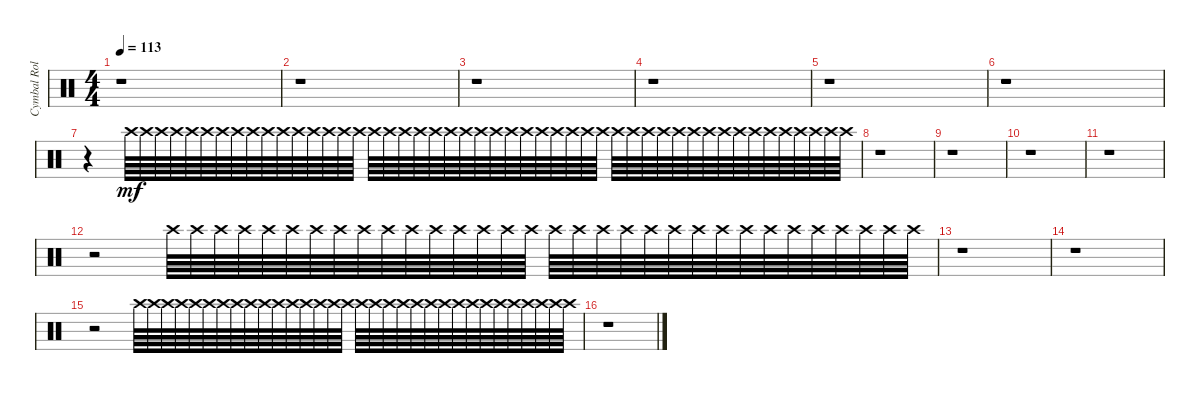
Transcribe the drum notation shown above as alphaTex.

\track ("Cymbal Rolls" "Cymbal Rol") {instrument percussion}
\staff {score}
\articulation defaults
\ts (4 4)
\tempo 113
\clef neutral
\ks c
r.1{dy mf} |
r.1 |
r.1 |
r.1 |
r.1 |
r.1 |
r.4 "Crash high (hit)".64 "Crash high (hit)".64 "Crash high (hit)".64 "Crash high (hit)".64 "Crash high (hit)".64 "Crash high (hit)".64 "Crash high (hit)".64 "Crash high (hit)".64 "Crash high (hit)".64 "Crash high (hit)".64 "Crash high (hit)".64 "Crash high (hit)".64 "Crash high (hit)".64 "Crash high (hit)".64 "Crash high (hit)".64 "Crash high (hit)".64 "Crash high (hit)".64 "Crash high (hit)".64 "Crash high (hit)".64 "Crash high (hit)".64 "Crash high (hit)".64 "Crash high (hit)".64 "Crash high (hit)".64 "Crash high (hit)".64 "Crash high (hit)".64 "Crash high (hit)".64 "Crash high (hit)".64 "Crash high (hit)".64 "Crash high (hit)".64 "Crash high (hit)".64 "Crash high (hit)".64 "Crash high (hit)".64 "Crash high (hit)".64 "Crash high (hit)".64 "Crash high (hit)".64 "Crash high (hit)".64 "Crash high (hit)".64 "Crash high (hit)".64 "Crash high (hit)".64 "Crash high (hit)".64 "Crash high (hit)".64 "Crash high (hit)".64 "Crash high (hit)".64 "Crash high (hit)".64 "Crash high (hit)".64 "Crash high (hit)".64 "Crash high (hit)".64 "Crash high (hit)".64 |
r.1 |
r.1 |
r.1 |
r.1 |
r.2 "Crash high (hit)".64 "Crash high (hit)".64 "Crash high (hit)".64 "Crash high (hit)".64 "Crash high (hit)".64 "Crash high (hit)".64 "Crash high (hit)".64 "Crash high (hit)".64 "Crash high (hit)".64 "Crash high (hit)".64 "Crash high (hit)".64 "Crash high (hit)".64 "Crash high (hit)".64 "Crash high (hit)".64 "Crash high (hit)".64 "Crash high (hit)".64 "Crash high (hit)".64 "Crash high (hit)".64 "Crash high (hit)".64 "Crash high (hit)".64 "Crash high (hit)".64 "Crash high (hit)".64 "Crash high (hit)".64 "Crash high (hit)".64 "Crash high (hit)".64 "Crash high (hit)".64 "Crash high (hit)".64 "Crash high (hit)".64 "Crash high (hit)".64 "Crash high (hit)".64 "Crash high (hit)".64 "Crash high (hit)".64 |
r.1 |
r.1 |
r.2 "Crash high (hit)".64 "Crash high (hit)".64 "Crash high (hit)".64 "Crash high (hit)".64 "Crash high (hit)".64 "Crash high (hit)".64 "Crash high (hit)".64 "Crash high (hit)".64 "Crash high (hit)".64 "Crash high (hit)".64 "Crash high (hit)".64 "Crash high (hit)".64 "Crash high (hit)".64 "Crash high (hit)".64 "Crash high (hit)".64 "Crash high (hit)".64 "Crash high (hit)".64 "Crash high (hit)".64 "Crash high (hit)".64 "Crash high (hit)".64 "Crash high (hit)".64 "Crash high (hit)".64 "Crash high (hit)".64 "Crash high (hit)".64 "Crash high (hit)".64 "Crash high (hit)".64 "Crash high (hit)".64 "Crash high (hit)".64 "Crash high (hit)".64 "Crash high (hit)".64 "Crash high (hit)".64 "Crash high (hit)".64 |
r.1
